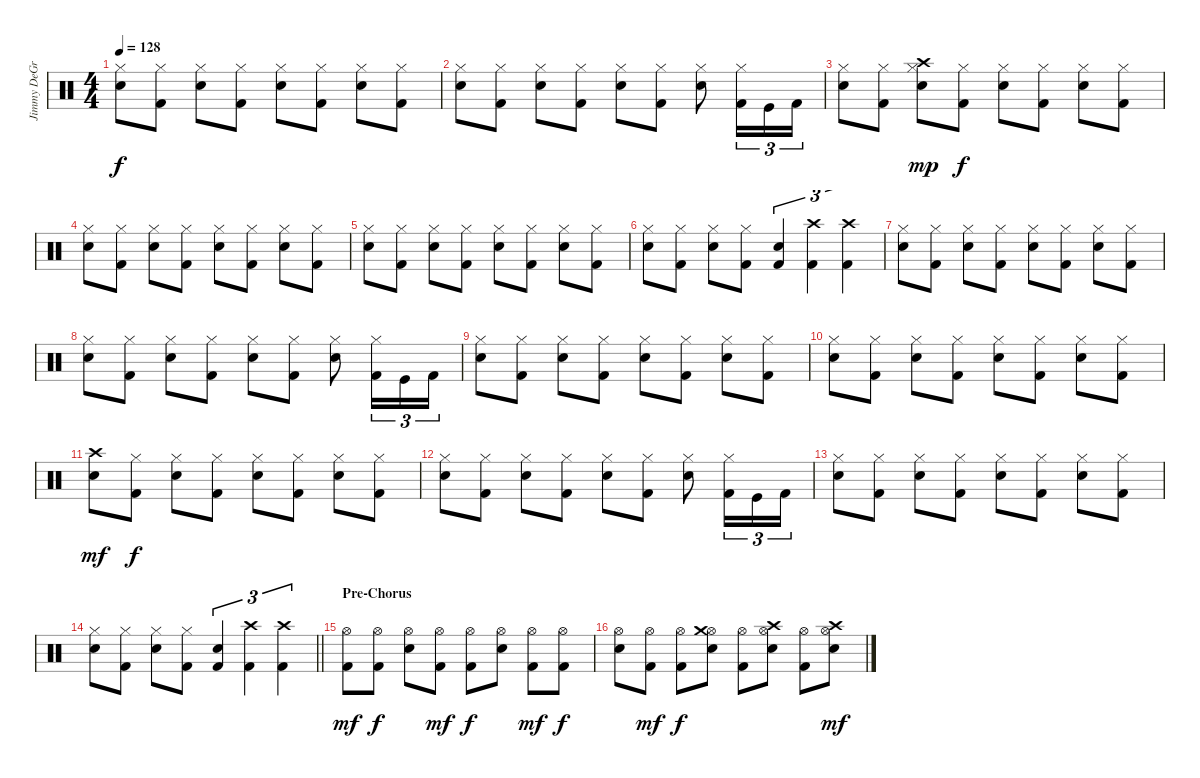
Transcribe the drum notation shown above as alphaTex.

\track ("Jimmy DeGrasso" "Jimmy DeGr") {instrument percussion}
\staff {score}
\articulation defaults
\ts (4 4)
\tempo 128
\clef neutral
\ks c
("Hi-Hat (closed)" "Snare (hit) 2").8{dy f} ("Hi-Hat (closed)" "Kick (hit) 2").8 ("Hi-Hat (closed)" "Snare (hit) 2").8 ("Hi-Hat (closed)" "Kick (hit) 2").8 ("Hi-Hat (closed)" "Snare (hit) 2").8 ("Hi-Hat (closed)" "Kick (hit) 2").8 ("Hi-Hat (closed)" "Snare (hit) 2").8 ("Hi-Hat (closed)" "Kick (hit) 2").8 |
("Hi-Hat (closed)" "Snare (hit) 2").8 ("Hi-Hat (closed)" "Kick (hit) 2").8 ("Hi-Hat (closed)" "Snare (hit) 2").8 ("Hi-Hat (closed)" "Kick (hit) 2").8 ("Hi-Hat (closed)" "Snare (hit) 2").8 ("Hi-Hat (closed)" "Kick (hit) 2").8 ("Hi-Hat (closed)" "Snare (hit) 2").8 ("Hi-Hat (closed)" "Kick (hit) 2").16{tu (3 2)} "Kick (hit)".16{tu (3 2)} "Kick (hit) 2".16{tu (3 2)} |
("Hi-Hat (closed)" "Snare (hit) 2").8 ("Hi-Hat (closed)" "Kick (hit) 2").8 ("Hi-Hat (closed)" "Crash high (hit)" "Snare (hit) 2").8{dy mp} ("Hi-Hat (closed)" "Kick (hit) 2").8{dy f} ("Hi-Hat (closed)" "Snare (hit) 2").8 ("Hi-Hat (closed)" "Kick (hit) 2").8 ("Hi-Hat (closed)" "Snare (hit) 2").8 ("Hi-Hat (closed)" "Kick (hit) 2").8 |
("Hi-Hat (closed)" "Snare (hit) 2").8 ("Hi-Hat (closed)" "Kick (hit) 2").8 ("Hi-Hat (closed)" "Snare (hit) 2").8 ("Hi-Hat (closed)" "Kick (hit) 2").8 ("Hi-Hat (closed)" "Snare (hit) 2").8 ("Hi-Hat (closed)" "Kick (hit) 2").8 ("Hi-Hat (closed)" "Snare (hit) 2").8 ("Hi-Hat (closed)" "Kick (hit) 2").8 |
("Hi-Hat (closed)" "Snare (hit) 2").8 ("Hi-Hat (closed)" "Kick (hit) 2").8 ("Hi-Hat (closed)" "Snare (hit) 2").8 ("Hi-Hat (closed)" "Kick (hit) 2").8 ("Hi-Hat (closed)" "Snare (hit) 2").8 ("Hi-Hat (closed)" "Kick (hit) 2").8 ("Hi-Hat (closed)" "Snare (hit) 2").8 ("Hi-Hat (closed)" "Kick (hit) 2").8 |
("Hi-Hat (closed)" "Snare (hit) 2").8 ("Hi-Hat (closed)" "Kick (hit) 2").8 ("Hi-Hat (closed)" "Snare (hit) 2").8 ("Hi-Hat (closed)" "Kick (hit) 2").8 ("Snare (hit) 2" "Kick (hit) 2").4{tu (3 2)} ("Crash high (hit)" "Kick (hit) 2").4{tu (3 2)} ("Crash high (hit)" "Kick (hit) 2").4{tu (3 2)} |
("Hi-Hat (closed)" "Snare (hit) 2").8 ("Hi-Hat (closed)" "Kick (hit) 2").8 ("Hi-Hat (closed)" "Snare (hit) 2").8 ("Hi-Hat (closed)" "Kick (hit) 2").8 ("Hi-Hat (closed)" "Snare (hit) 2").8 ("Hi-Hat (closed)" "Kick (hit) 2").8 ("Hi-Hat (closed)" "Snare (hit) 2").8 ("Hi-Hat (closed)" "Kick (hit) 2").8 |
("Hi-Hat (closed)" "Snare (hit) 2").8 ("Hi-Hat (closed)" "Kick (hit) 2").8 ("Hi-Hat (closed)" "Snare (hit) 2").8 ("Hi-Hat (closed)" "Kick (hit) 2").8 ("Hi-Hat (closed)" "Snare (hit) 2").8 ("Hi-Hat (closed)" "Kick (hit) 2").8 ("Hi-Hat (closed)" "Snare (hit) 2").8 ("Hi-Hat (closed)" "Kick (hit) 2").16{tu (3 2)} "Kick (hit)".16{tu (3 2)} "Kick (hit) 2".16{tu (3 2)} |
("Hi-Hat (closed)" "Snare (hit) 2").8 ("Hi-Hat (closed)" "Kick (hit) 2").8 ("Hi-Hat (closed)" "Snare (hit) 2").8 ("Hi-Hat (closed)" "Kick (hit) 2").8 ("Hi-Hat (closed)" "Snare (hit) 2").8 ("Hi-Hat (closed)" "Kick (hit) 2").8 ("Hi-Hat (closed)" "Snare (hit) 2").8 ("Hi-Hat (closed)" "Kick (hit) 2").8 |
("Hi-Hat (closed)" "Snare (hit) 2").8 ("Hi-Hat (closed)" "Kick (hit) 2").8 ("Hi-Hat (closed)" "Snare (hit) 2").8 ("Hi-Hat (closed)" "Kick (hit) 2").8 ("Hi-Hat (closed)" "Snare (hit) 2").8 ("Hi-Hat (closed)" "Kick (hit) 2").8 ("Hi-Hat (closed)" "Snare (hit) 2").8 ("Hi-Hat (closed)" "Kick (hit) 2").8 |
("Crash high (hit)" "Snare (hit) 2").8{dy mf} ("Hi-Hat (closed)" "Kick (hit) 2").8{dy f} ("Hi-Hat (closed)" "Snare (hit) 2").8 ("Hi-Hat (closed)" "Kick (hit) 2").8 ("Hi-Hat (closed)" "Snare (hit) 2").8 ("Hi-Hat (closed)" "Kick (hit) 2").8 ("Hi-Hat (closed)" "Snare (hit) 2").8 ("Hi-Hat (closed)" "Kick (hit) 2").8 |
("Hi-Hat (closed)" "Snare (hit) 2").8 ("Hi-Hat (closed)" "Kick (hit) 2").8 ("Hi-Hat (closed)" "Snare (hit) 2").8 ("Hi-Hat (closed)" "Kick (hit) 2").8 ("Hi-Hat (closed)" "Snare (hit) 2").8 ("Hi-Hat (closed)" "Kick (hit) 2").8 ("Hi-Hat (closed)" "Snare (hit) 2").8 ("Hi-Hat (closed)" "Kick (hit) 2").16{tu (3 2)} "Kick (hit)".16{tu (3 2)} "Kick (hit) 2".16{tu (3 2)} |
("Hi-Hat (closed)" "Snare (hit) 2").8 ("Hi-Hat (closed)" "Kick (hit) 2").8 ("Hi-Hat (closed)" "Snare (hit) 2").8 ("Hi-Hat (closed)" "Kick (hit) 2").8 ("Hi-Hat (closed)" "Snare (hit) 2").8 ("Hi-Hat (closed)" "Kick (hit) 2").8 ("Hi-Hat (closed)" "Snare (hit) 2").8 ("Hi-Hat (closed)" "Kick (hit) 2").8 |
\barLineRight lightlight
("Hi-Hat (closed)" "Snare (hit) 2").8 ("Hi-Hat (closed)" "Kick (hit) 2").8 ("Hi-Hat (closed)" "Snare (hit) 2").8 ("Hi-Hat (closed)" "Kick (hit) 2").8 ("Snare (hit) 2" "Kick (hit) 2").4{tu (3 2)} ("Crash high (hit)" "Kick (hit) 2").4{tu (3 2)} ("Crash high (hit)" "Kick (hit) 2").4{tu (3 2)} |
\section ("" "Pre-Chorus")
("Hi-Hat (open)" "Kick (hit) 2").8{dy mf} ("Hi-Hat (open)" "Kick (hit) 2").8{dy f} ("Hi-Hat (open)" "Snare (hit) 2").8 ("Hi-Hat (open)" "Kick (hit) 2").8{dy mf} ("Hi-Hat (open)" "Kick (hit) 2").8{dy f} ("Hi-Hat (open)" "Snare (hit) 2").8 ("Hi-Hat (open)" "Kick (hit) 2").8{dy mf} ("Hi-Hat (open)" "Kick (hit) 2").8{dy f} |
("Hi-Hat (open)" "Snare (hit) 2").8 ("Hi-Hat (open)" "Kick (hit) 2").8{dy mf} ("Hi-Hat (open)" "Kick (hit) 2").8{dy f} ("Hi-Hat (open)" "Crash medium (hit)" "Snare (hit) 2").8 ("Hi-Hat (open)" "Kick (hit) 2").8 ("Hi-Hat (open)" "Crash high (hit)" "Snare (hit) 2").8 ("Hi-Hat (open)" "Kick (hit) 2").8 ("Hi-Hat (open)" "Crash high (hit)" "Snare (hit) 2").8{dy mf}
